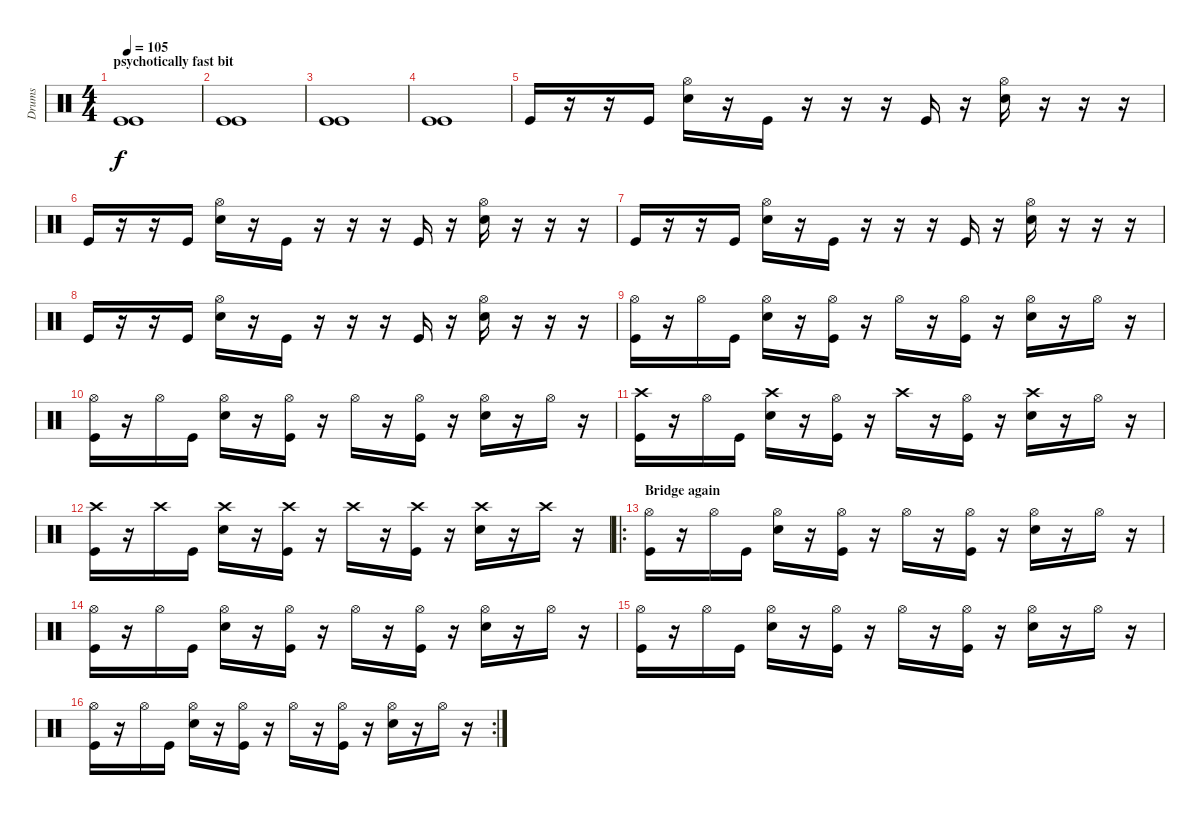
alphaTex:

\track ("Drums" "Drums") {instrument percussion}
\staff {score}
\articulation defaults
\ts (4 4)
\section ("" "psychotically fast bit")
\tempo 105
\clef neutral
\ks c
("Kick (hit)" "Kick (hit)").1{dy f} |
("Kick (hit)" "Kick (hit)").1 |
("Kick (hit)" "Kick (hit)").1 |
("Kick (hit)" "Kick (hit)").1 |
"Kick (hit)".16 r.16 r.16 "Kick (hit)".16 ("Hi-Hat (open)" "Snare (hit) 2").16 r.16 "Kick (hit)".16 r.16 r.16 r.16 "Kick (hit)".16 r.16 ("Hi-Hat (open)" "Snare (hit) 2").16 r.16 r.16 r.16 |
"Kick (hit)".16 r.16 r.16 "Kick (hit)".16 ("Hi-Hat (open)" "Snare (hit) 2").16 r.16 "Kick (hit)".16 r.16 r.16 r.16 "Kick (hit)".16 r.16 ("Hi-Hat (open)" "Snare (hit) 2").16 r.16 r.16 r.16 |
"Kick (hit)".16 r.16 r.16 "Kick (hit)".16 ("Hi-Hat (open)" "Snare (hit) 2").16 r.16 "Kick (hit)".16 r.16 r.16 r.16 "Kick (hit)".16 r.16 ("Hi-Hat (open)" "Snare (hit) 2").16 r.16 r.16 r.16 |
"Kick (hit)".16 r.16 r.16 "Kick (hit)".16 ("Hi-Hat (open)" "Snare (hit) 2").16 r.16 "Kick (hit)".16 r.16 r.16 r.16 "Kick (hit)".16 r.16 ("Hi-Hat (open)" "Snare (hit) 2").16 r.16 r.16 r.16 |
("Hi-Hat (open)" "Kick (hit)").16 r.16 "Hi-Hat (open)".16 "Kick (hit)".16 ("Hi-Hat (open)" "Snare (hit) 2").16 r.16 ("Hi-Hat (open)" "Kick (hit)").16 r.16 "Hi-Hat (open)".16 r.16 ("Hi-Hat (open)" "Kick (hit)").16 r.16 ("Hi-Hat (open)" "Snare (hit) 2").16 r.16 "Hi-Hat (open)".16 r.16 |
("Hi-Hat (open)" "Kick (hit)").16 r.16 "Hi-Hat (open)".16 "Kick (hit)".16 ("Hi-Hat (open)" "Snare (hit) 2").16 r.16 ("Hi-Hat (open)" "Kick (hit)").16 r.16 "Hi-Hat (open)".16 r.16 ("Hi-Hat (open)" "Kick (hit)").16 r.16 ("Hi-Hat (open)" "Snare (hit) 2").16 r.16 "Hi-Hat (open)".16 r.16 |
("Crash high (hit)" "Kick (hit)").16 r.16 "Hi-Hat (open)".16 "Kick (hit)".16 ("Crash high (hit)" "Snare (hit) 2").16 r.16 ("Hi-Hat (open)" "Kick (hit)").16 r.16 "Crash high (hit)".16 r.16 ("Hi-Hat (open)" "Kick (hit)").16 r.16 ("Crash high (hit)" "Snare (hit) 2").16 r.16 "Hi-Hat (open)".16 r.16 |
("Crash high (hit)" "Kick (hit)").16 r.16 "Crash high (hit)".16 "Kick (hit)".16 ("Crash high (hit)" "Snare (hit) 2").16 r.16 ("Crash high (hit)" "Kick (hit)").16 r.16 "Crash high (hit)".16 r.16 ("Crash high (hit)" "Kick (hit)").16 r.16 ("Crash high (hit)" "Snare (hit) 2").16 r.16 "Crash high (hit)".16 r.16 |
\ro
\section ("" "Bridge again")
("Hi-Hat (open)" "Kick (hit)").16 r.16 "Hi-Hat (open)".16 "Kick (hit)".16 ("Hi-Hat (open)" "Snare (hit) 2").16 r.16 ("Hi-Hat (open)" "Kick (hit)").16 r.16 "Hi-Hat (open)".16 r.16 ("Hi-Hat (open)" "Kick (hit)").16 r.16 ("Hi-Hat (open)" "Snare (hit) 2").16 r.16 "Hi-Hat (open)".16 r.16 |
("Hi-Hat (open)" "Kick (hit)").16 r.16 "Hi-Hat (open)".16 "Kick (hit)".16 ("Hi-Hat (open)" "Snare (hit) 2").16 r.16 ("Hi-Hat (open)" "Kick (hit)").16 r.16 "Hi-Hat (open)".16 r.16 ("Hi-Hat (open)" "Kick (hit)").16 r.16 ("Hi-Hat (open)" "Snare (hit) 2").16 r.16 "Hi-Hat (open)".16 r.16 |
("Hi-Hat (open)" "Kick (hit)").16 r.16 "Hi-Hat (open)".16 "Kick (hit)".16 ("Hi-Hat (open)" "Snare (hit) 2").16 r.16 ("Hi-Hat (open)" "Kick (hit)").16 r.16 "Hi-Hat (open)".16 r.16 ("Hi-Hat (open)" "Kick (hit)").16 r.16 ("Hi-Hat (open)" "Snare (hit) 2").16 r.16 "Hi-Hat (open)".16 r.16 |
\rc 2
("Hi-Hat (open)" "Kick (hit)").16 r.16 "Hi-Hat (open)".16 "Kick (hit)".16 ("Hi-Hat (open)" "Snare (hit) 2").16 r.16 ("Hi-Hat (open)" "Kick (hit)").16 r.16 "Hi-Hat (open)".16 r.16 ("Hi-Hat (open)" "Kick (hit)").16 r.16 ("Hi-Hat (open)" "Snare (hit) 2").16 r.16 "Hi-Hat (open)".16 r.16
